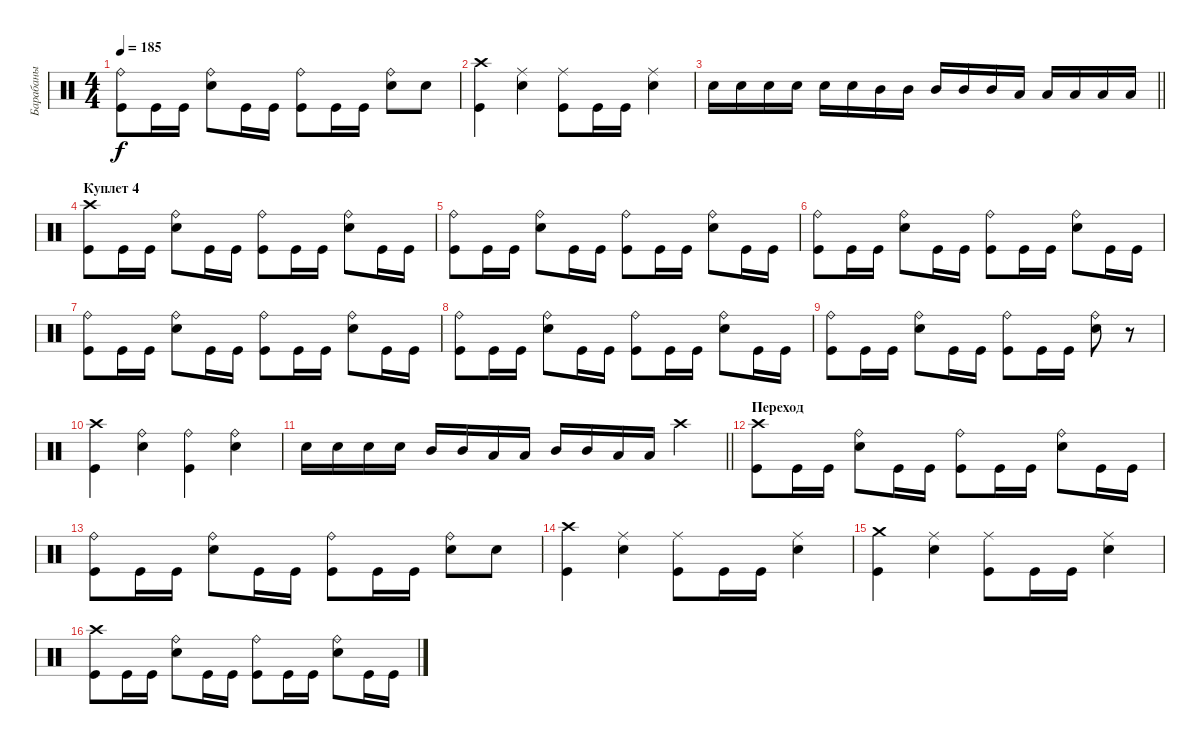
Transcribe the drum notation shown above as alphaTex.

\track ("Барабаны" "Барабаны") {instrument percussion}
\staff {score}
\articulation defaults
\ts (4 4)
\tempo 185
\clef neutral
\ks c
("Kick (hit)" "Ride (bell)").8{dy f} "Kick (hit)".16 "Kick (hit)".16 ("Snare (hit) 2" "Ride (bell)").8 "Kick (hit)".16 "Kick (hit)".16 ("Kick (hit)" "Ride (bell)").8 "Kick (hit)".16 "Kick (hit)".16 ("Snare (hit) 2" "Ride (bell)").8 "Snare (hit) 2".8 |
("Kick (hit)" "Crash high (hit)").4 ("Snare (hit) 2" "Ride (middle)").4 ("Kick (hit)" "Ride (middle)").8 "Kick (hit)".16 "Kick (hit)".16 ("Snare (hit) 2" "Ride (middle)").4 |
\barLineRight lightlight "Snare (hit) 2".16 "Snare (hit) 2".16 "Snare (hit) 2".16 "Snare (hit) 2".16 "Snare (hit) 2".16 "Snare (hit) 2".16 "Mid Tom (hit)".16 "Mid Tom (hit)".16 "Mid Tom (hit)".16 "Mid Tom (hit)".16 "Mid Tom (hit)".16 "Low Tom (hit)".16 "Low Tom (hit)".16 "Low Tom (hit)".16 "Low Tom (hit)".16 "Low Tom (hit)".16
|
\section ("" "Куплет 4")
("Kick (hit)" "Crash high (hit)").8 "Kick (hit)".16 "Kick (hit)".16 ("Snare (hit) 2" "Ride (bell)").8 "Kick (hit)".16 "Kick (hit)".16 ("Kick (hit)" "Ride (bell)").8 "Kick (hit)".16 "Kick (hit)".16 ("Snare (hit) 2" "Ride (bell)").8 "Kick (hit)".16 "Kick (hit)".16 |
("Kick (hit)" "Ride (bell)").8 "Kick (hit)".16 "Kick (hit)".16 ("Snare (hit) 2" "Ride (bell)").8 "Kick (hit)".16 "Kick (hit)".16 ("Kick (hit)" "Ride (bell)").8 "Kick (hit)".16 "Kick (hit)".16 ("Snare (hit) 2" "Ride (bell)").8 "Kick (hit)".16 "Kick (hit)".16 |
("Kick (hit)" "Ride (bell)").8 "Kick (hit)".16 "Kick (hit)".16 ("Snare (hit) 2" "Ride (bell)").8 "Kick (hit)".16 "Kick (hit)".16 ("Kick (hit)" "Ride (bell)").8 "Kick (hit)".16 "Kick (hit)".16 ("Snare (hit) 2" "Ride (bell)").8 "Kick (hit)".16 "Kick (hit)".16 |
("Kick (hit)" "Ride (bell)").8 "Kick (hit)".16 "Kick (hit)".16 ("Snare (hit) 2" "Ride (bell)").8 "Kick (hit)".16 "Kick (hit)".16 ("Kick (hit)" "Ride (bell)").8 "Kick (hit)".16 "Kick (hit)".16 ("Snare (hit) 2" "Ride (bell)").8 "Kick (hit)".16 "Kick (hit)".16 |
("Kick (hit)" "Ride (bell)").8 "Kick (hit)".16 "Kick (hit)".16 ("Snare (hit) 2" "Ride (bell)").8 "Kick (hit)".16 "Kick (hit)".16 ("Kick (hit)" "Ride (bell)").8 "Kick (hit)".16 "Kick (hit)".16 ("Snare (hit) 2" "Ride (bell)").8 "Kick (hit)".16 "Kick (hit)".16 |
("Kick (hit)" "Ride (bell)").8 "Kick (hit)".16 "Kick (hit)".16 ("Snare (hit) 2" "Ride (bell)").8 "Kick (hit)".16 "Kick (hit)".16 ("Kick (hit)" "Ride (bell)").8 "Kick (hit)".16 "Kick (hit)".16 ("Snare (hit) 2" "Ride (bell)").8 r.8 |
("Kick (hit)" "Crash high (hit)").4 ("Snare (hit) 2" "Ride (bell)").4 ("Kick (hit)" "Ride (bell)").4 ("Snare (hit) 2" "Ride (bell)").4 |
\barLineRight lightlight "Snare (hit) 2".16 "Snare (hit) 2".16 "Snare (hit) 2".16 "Snare (hit) 2".16 "Mid Tom (hit)".16 "Mid Tom (hit)".16 "Low Tom (hit)".16 "Low Tom (hit)".16 "Mid Tom (hit)".16 "Mid Tom (hit)".16 "Low Tom (hit)".16 "Low Tom (hit)".16 "Crash high (hit)".4
|
\section ("" "Переход")
("Kick (hit)" "Crash high (hit)").8 "Kick (hit)".16 "Kick (hit)".16 ("Snare (hit) 2" "Ride (bell)").8 "Kick (hit)".16 "Kick (hit)".16 ("Kick (hit)" "Ride (bell)").8 "Kick (hit)".16 "Kick (hit)".16 ("Snare (hit) 2" "Ride (bell)").8 "Kick (hit)".16 "Kick (hit)".16 |
("Kick (hit)" "Ride (bell)").8 "Kick (hit)".16 "Kick (hit)".16 ("Snare (hit) 2" "Ride (bell)").8 "Kick (hit)".16 "Kick (hit)".16 ("Kick (hit)" "Ride (bell)").8 "Kick (hit)".16 "Kick (hit)".16 ("Snare (hit) 2" "Ride (bell)").8 "Snare (hit) 2".8 |
("Kick (hit)" "Crash high (hit)").4 ("Snare (hit) 2" "Ride (middle)").4 ("Kick (hit)" "Ride (middle)").8 "Kick (hit)".16 "Kick (hit)".16 ("Snare (hit) 2" "Ride (middle)").4 |
("Kick (hit)" "Crash medium (hit)").4 ("Snare (hit) 2" "Ride (middle)").4 ("Kick (hit)" "Ride (middle)").8 "Kick (hit)".16 "Kick (hit)".16 ("Snare (hit) 2" "Ride (middle)").4 |
("Kick (hit)" "Crash high (hit)").8 "Kick (hit)".16 "Kick (hit)".16 ("Snare (hit) 2" "Ride (bell)").8 "Kick (hit)".16 "Kick (hit)".16 ("Kick (hit)" "Ride (bell)").8 "Kick (hit)".16 "Kick (hit)".16 ("Snare (hit) 2" "Ride (bell)").8 "Kick (hit)".16 "Kick (hit)".16
